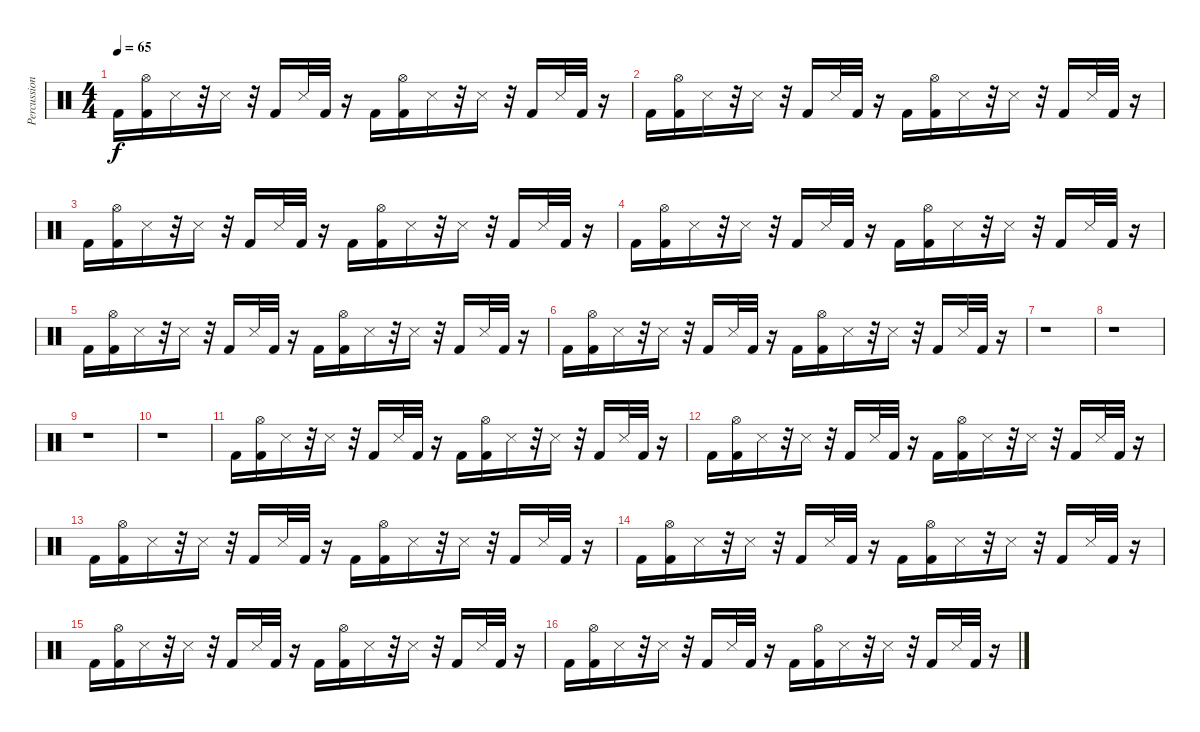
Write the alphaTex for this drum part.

\track ("Percussion 1" "Percussion") {instrument percussion}
\staff {score}
\articulation defaults
\ts (4 4)
\tempo 65
\clef neutral
\ks c "Kick (hit) 2".16{dy f}
("Hi-Hat (open)" "Kick (hit) 2").16 "Snare (side stick) 3".16 r.32 "Snare (side stick) 3".16 r.32 "Kick (hit) 2".16 "Snare (side stick) 3".32 "Kick (hit) 2".32 r.16 "Kick (hit) 2".16 ("Hi-Hat (open)" "Kick (hit) 2").16 "Snare (side stick) 3".16 r.32 "Snare (side stick) 3".16 r.32 "Kick (hit) 2".16 "Snare (side stick) 3".32 "Kick (hit) 2".32 r.16 |
"Kick (hit) 2".16 ("Hi-Hat (open)" "Kick (hit) 2").16 "Snare (side stick) 3".16 r.32 "Snare (side stick) 3".16 r.32 "Kick (hit) 2".16 "Snare (side stick) 3".32 "Kick (hit) 2".32 r.16 "Kick (hit) 2".16 ("Hi-Hat (open)" "Kick (hit) 2").16 "Snare (side stick) 3".16 r.32 "Snare (side stick) 3".16 r.32 "Kick (hit) 2".16 "Snare (side stick) 3".32 "Kick (hit) 2".32 r.16 |
\section ("" "")
"Kick (hit) 2".16 ("Hi-Hat (open)" "Kick (hit) 2").16 "Snare (side stick) 3".16 r.32 "Snare (side stick) 3".16 r.32 "Kick (hit) 2".16 "Snare (side stick) 3".32 "Kick (hit) 2".32 r.16 "Kick (hit) 2".16 ("Hi-Hat (open)" "Kick (hit) 2").16 "Snare (side stick) 3".16 r.32 "Snare (side stick) 3".16 r.32 "Kick (hit) 2".16 "Snare (side stick) 3".32 "Kick (hit) 2".32 r.16 |
"Kick (hit) 2".16 ("Hi-Hat (open)" "Kick (hit) 2").16 "Snare (side stick) 3".16 r.32 "Snare (side stick) 3".16 r.32 "Kick (hit) 2".16 "Snare (side stick) 3".32 "Kick (hit) 2".32 r.16 "Kick (hit) 2".16 ("Hi-Hat (open)" "Kick (hit) 2").16 "Snare (side stick) 3".16 r.32 "Snare (side stick) 3".16 r.32 "Kick (hit) 2".16 "Snare (side stick) 3".32 "Kick (hit) 2".32 r.16 |
"Kick (hit) 2".16 ("Hi-Hat (open)" "Kick (hit) 2").16 "Snare (side stick) 3".16 r.32 "Snare (side stick) 3".16 r.32 "Kick (hit) 2".16 "Snare (side stick) 3".32 "Kick (hit) 2".32 r.16 "Kick (hit) 2".16 ("Hi-Hat (open)" "Kick (hit) 2").16 "Snare (side stick) 3".16 r.32 "Snare (side stick) 3".16 r.32 "Kick (hit) 2".16 "Snare (side stick) 3".32 "Kick (hit) 2".32 r.16 |
"Kick (hit) 2".16 ("Hi-Hat (open)" "Kick (hit) 2").16 "Snare (side stick) 3".16 r.32 "Snare (side stick) 3".16 r.32 "Kick (hit) 2".16 "Snare (side stick) 3".32 "Kick (hit) 2".32 r.16 "Kick (hit) 2".16 ("Hi-Hat (open)" "Kick (hit) 2").16 "Snare (side stick) 3".16 r.32 "Snare (side stick) 3".16 r.32 "Kick (hit) 2".16 "Snare (side stick) 3".32 "Kick (hit) 2".32 r.16 |
\section ("" "")
r.1 |
r.1 |
r.1 |
r.1 |
\section ("" "")
"Kick (hit) 2".16 ("Hi-Hat (open)" "Kick (hit) 2").16 "Snare (side stick) 3".16 r.32 "Snare (side stick) 3".16 r.32 "Kick (hit) 2".16 "Snare (side stick) 3".32 "Kick (hit) 2".32 r.16 "Kick (hit) 2".16 ("Hi-Hat (open)" "Kick (hit) 2").16 "Snare (side stick) 3".16 r.32 "Snare (side stick) 3".16 r.32 "Kick (hit) 2".16 "Snare (side stick) 3".32 "Kick (hit) 2".32 r.16 |
"Kick (hit) 2".16 ("Hi-Hat (open)" "Kick (hit) 2").16 "Snare (side stick) 3".16 r.32 "Snare (side stick) 3".16 r.32 "Kick (hit) 2".16 "Snare (side stick) 3".32 "Kick (hit) 2".32 r.16 "Kick (hit) 2".16 ("Hi-Hat (open)" "Kick (hit) 2").16 "Snare (side stick) 3".16 r.32 "Snare (side stick) 3".16 r.32 "Kick (hit) 2".16 "Snare (side stick) 3".32 "Kick (hit) 2".32 r.16 |
"Kick (hit) 2".16 ("Hi-Hat (open)" "Kick (hit) 2").16 "Snare (side stick) 3".16 r.32 "Snare (side stick) 3".16 r.32 "Kick (hit) 2".16 "Snare (side stick) 3".32 "Kick (hit) 2".32 r.16 "Kick (hit) 2".16 ("Hi-Hat (open)" "Kick (hit) 2").16 "Snare (side stick) 3".16 r.32 "Snare (side stick) 3".16 r.32 "Kick (hit) 2".16 "Snare (side stick) 3".32 "Kick (hit) 2".32 r.16 |
"Kick (hit) 2".16 ("Hi-Hat (open)" "Kick (hit) 2").16 "Snare (side stick) 3".16 r.32 "Snare (side stick) 3".16 r.32 "Kick (hit) 2".16 "Snare (side stick) 3".32 "Kick (hit) 2".32 r.16 "Kick (hit) 2".16 ("Hi-Hat (open)" "Kick (hit) 2").16 "Snare (side stick) 3".16 r.32 "Snare (side stick) 3".16 r.32 "Kick (hit) 2".16 "Snare (side stick) 3".32 "Kick (hit) 2".32 r.16 |
"Kick (hit) 2".16 ("Hi-Hat (open)" "Kick (hit) 2").16 "Snare (side stick) 3".16 r.32 "Snare (side stick) 3".16 r.32 "Kick (hit) 2".16 "Snare (side stick) 3".32 "Kick (hit) 2".32 r.16 "Kick (hit) 2".16 ("Hi-Hat (open)" "Kick (hit) 2").16 "Snare (side stick) 3".16 r.32 "Snare (side stick) 3".16 r.32 "Kick (hit) 2".16 "Snare (side stick) 3".32 "Kick (hit) 2".32 r.16 |
"Kick (hit) 2".16 ("Hi-Hat (open)" "Kick (hit) 2").16 "Snare (side stick) 3".16 r.32 "Snare (side stick) 3".16 r.32 "Kick (hit) 2".16 "Snare (side stick) 3".32 "Kick (hit) 2".32 r.16 "Kick (hit) 2".16 ("Hi-Hat (open)" "Kick (hit) 2").16 "Snare (side stick) 3".16 r.32 "Snare (side stick) 3".16 r.32 "Kick (hit) 2".16 "Snare (side stick) 3".32 "Kick (hit) 2".32 r.16
